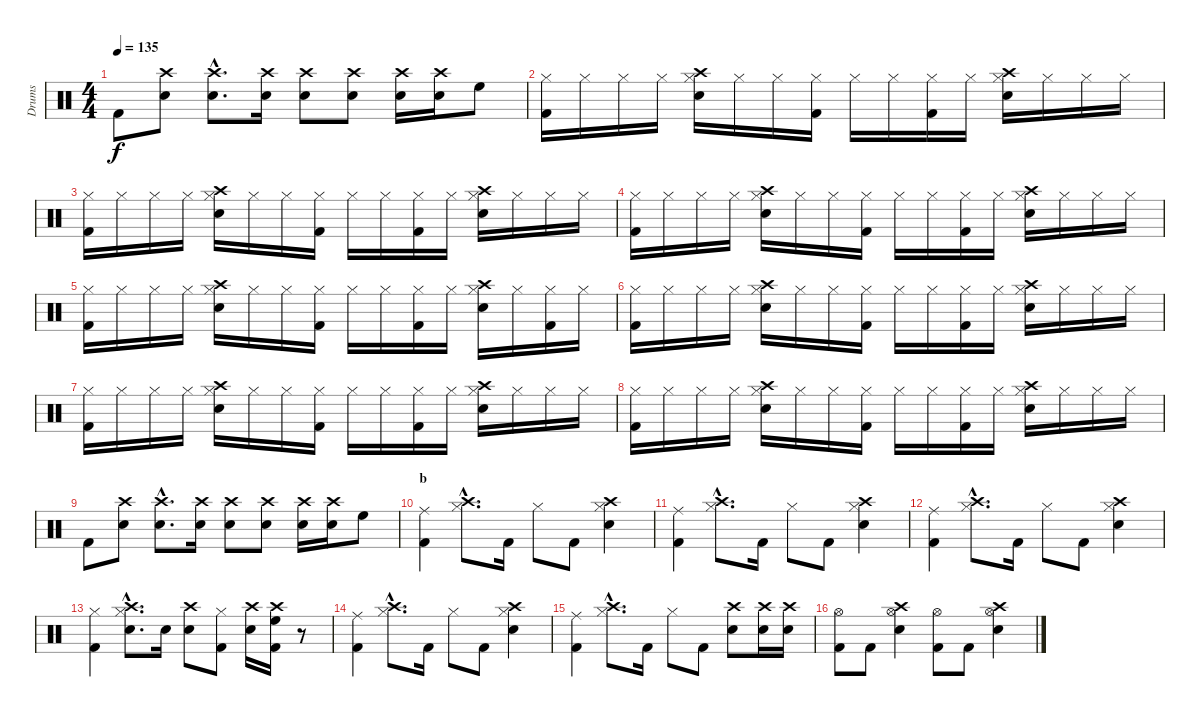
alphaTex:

\track ("Drums" "Drums") {instrument percussion}
\staff {score}
\articulation defaults
\ts (4 4)
\tempo 135
\clef neutral
\ks c "Kick (hit) 2".8{dy f}
("Crash high (hit)" "Snare (hit) 2").8 ("Crash high (hit)"{hac} "Snare (hit) 2"{hac}).8{d} ("Crash high (hit)" "Snare (hit) 2").16 ("Crash high (hit)" "Snare (hit) 2").8 ("Crash high (hit)" "Snare (hit) 2").8 ("Crash high (hit)" "Snare (hit) 2").16 ("Crash high (hit)" "Snare (hit) 2").16 "High Floor Tom (hit)".8 |
("Hi-Hat (closed)" "Kick (hit) 2").16 "Hi-Hat (closed)".16 "Hi-Hat (closed)".16 "Hi-Hat (closed)".16 ("Crash high (hit)" "Hi-Hat (closed)" "Snare (hit) 2").16 "Hi-Hat (closed)".16 "Hi-Hat (closed)".16 ("Hi-Hat (closed)" "Kick (hit) 2").16 "Hi-Hat (closed)".16 "Hi-Hat (closed)".16 ("Hi-Hat (closed)" "Kick (hit) 2").16 "Hi-Hat (closed)".16 ("Crash high (hit)" "Hi-Hat (closed)" "Snare (hit) 2").16 "Hi-Hat (closed)".16 "Hi-Hat (closed)".16 "Hi-Hat (closed)".16 |
("Hi-Hat (closed)" "Kick (hit) 2").16 "Hi-Hat (closed)".16 "Hi-Hat (closed)".16 "Hi-Hat (closed)".16 ("Crash high (hit)" "Hi-Hat (closed)" "Snare (hit) 2").16 "Hi-Hat (closed)".16 "Hi-Hat (closed)".16 ("Hi-Hat (closed)" "Kick (hit) 2").16 "Hi-Hat (closed)".16 "Hi-Hat (closed)".16 ("Hi-Hat (closed)" "Kick (hit) 2").16 "Hi-Hat (closed)".16 ("Crash high (hit)" "Hi-Hat (closed)" "Snare (hit) 2").16 "Hi-Hat (closed)".16 "Hi-Hat (closed)".16 "Hi-Hat (closed)".16 |
("Hi-Hat (closed)" "Kick (hit) 2").16 "Hi-Hat (closed)".16 "Hi-Hat (closed)".16 "Hi-Hat (closed)".16 ("Crash high (hit)" "Hi-Hat (closed)" "Snare (hit) 2").16 "Hi-Hat (closed)".16 "Hi-Hat (closed)".16 ("Hi-Hat (closed)" "Kick (hit) 2").16 "Hi-Hat (closed)".16 "Hi-Hat (closed)".16 ("Hi-Hat (closed)" "Kick (hit) 2").16 "Hi-Hat (closed)".16 ("Crash high (hit)" "Hi-Hat (closed)" "Snare (hit) 2").16 "Hi-Hat (closed)".16 "Hi-Hat (closed)".16 "Hi-Hat (closed)".16 |
("Hi-Hat (closed)" "Kick (hit) 2").16 "Hi-Hat (closed)".16 "Hi-Hat (closed)".16 "Hi-Hat (closed)".16 ("Crash high (hit)" "Hi-Hat (closed)" "Snare (hit) 2").16 "Hi-Hat (closed)".16 "Hi-Hat (closed)".16 ("Hi-Hat (closed)" "Kick (hit) 2").16 "Hi-Hat (closed)".16 "Hi-Hat (closed)".16 ("Hi-Hat (closed)" "Kick (hit) 2").16 "Hi-Hat (closed)".16 ("Crash high (hit)" "Hi-Hat (closed)" "Snare (hit) 2").16 "Hi-Hat (closed)".16 ("Hi-Hat (closed)" "Kick (hit) 2").16 "Hi-Hat (closed)".16 |
("Hi-Hat (closed)" "Kick (hit) 2").16 "Hi-Hat (closed)".16 "Hi-Hat (closed)".16 "Hi-Hat (closed)".16 ("Crash high (hit)" "Hi-Hat (closed)" "Snare (hit) 2").16 "Hi-Hat (closed)".16 "Hi-Hat (closed)".16 ("Hi-Hat (closed)" "Kick (hit) 2").16 "Hi-Hat (closed)".16 "Hi-Hat (closed)".16 ("Hi-Hat (closed)" "Kick (hit) 2").16 "Hi-Hat (closed)".16 ("Crash high (hit)" "Hi-Hat (closed)" "Snare (hit) 2").16 "Hi-Hat (closed)".16 "Hi-Hat (closed)".16 "Hi-Hat (closed)".16 |
("Hi-Hat (closed)" "Kick (hit) 2").16 "Hi-Hat (closed)".16 "Hi-Hat (closed)".16 "Hi-Hat (closed)".16 ("Crash high (hit)" "Hi-Hat (closed)" "Snare (hit) 2").16 "Hi-Hat (closed)".16 "Hi-Hat (closed)".16 ("Hi-Hat (closed)" "Kick (hit) 2").16 "Hi-Hat (closed)".16 "Hi-Hat (closed)".16 ("Hi-Hat (closed)" "Kick (hit) 2").16 "Hi-Hat (closed)".16 ("Crash high (hit)" "Hi-Hat (closed)" "Snare (hit) 2").16 "Hi-Hat (closed)".16 "Hi-Hat (closed)".16 "Hi-Hat (closed)".16 |
("Hi-Hat (closed)" "Kick (hit) 2").16 "Hi-Hat (closed)".16 "Hi-Hat (closed)".16 "Hi-Hat (closed)".16 ("Crash high (hit)" "Hi-Hat (closed)" "Snare (hit) 2").16 "Hi-Hat (closed)".16 "Hi-Hat (closed)".16 ("Hi-Hat (closed)" "Kick (hit) 2").16 "Hi-Hat (closed)".16 "Hi-Hat (closed)".16 ("Hi-Hat (closed)" "Kick (hit) 2").16 "Hi-Hat (closed)".16 ("Crash high (hit)" "Hi-Hat (closed)" "Snare (hit) 2").16 "Hi-Hat (closed)".16 "Hi-Hat (closed)".16 "Hi-Hat (closed)".16 |
"Kick (hit) 2".8 ("Crash high (hit)" "Snare (hit) 2").8 ("Crash high (hit)"{hac} "Snare (hit) 2"{hac}).8{d} ("Crash high (hit)" "Snare (hit) 2").16 ("Crash high (hit)" "Snare (hit) 2").8 ("Crash high (hit)" "Snare (hit) 2").8 ("Crash high (hit)" "Snare (hit) 2").16 ("Crash high (hit)" "Snare (hit) 2").16 "High Floor Tom (hit)".8 |
\section ("" "b")
("Ride (middle)" "Kick (hit) 2").4 ("Crash high (hit)"{hac} "Hi-Hat (closed)"{hac}).8{d} "Kick (hit) 2".16 "Hi-Hat (closed)".8 "Kick (hit) 2".8 ("Crash high (hit)" "Hi-Hat (closed)" "Snare (hit) 2").4 |
("Ride (middle)" "Kick (hit) 2").4 ("Crash high (hit)"{hac} "Hi-Hat (closed)"{hac}).8{d} "Kick (hit) 2".16 "Hi-Hat (closed)".8 "Kick (hit) 2".8 ("Crash high (hit)" "Hi-Hat (closed)" "Snare (hit) 2").4 |
("Ride (middle)" "Kick (hit) 2").4 ("Crash high (hit)"{hac} "Hi-Hat (closed)"{hac}).8{d} "Kick (hit) 2".16 "Hi-Hat (closed)".8 "Kick (hit) 2".8 ("Crash high (hit)" "Hi-Hat (closed)" "Snare (hit) 2").4 |
("Hi-Hat (closed)" "Kick (hit) 2").4 ("Crash high (hit)"{hac} "Hi-Hat (closed)"{hac} "Snare (hit) 2"{hac}).8{d} "Snare (hit) 2".16 ("Crash high (hit)" "Snare (hit) 2").8 ("Hi-Hat (closed)" "Kick (hit) 2").8 ("Crash high (hit)" "Snare (hit) 2").16 ("Crash high (hit)" "High Floor Tom (hit)" "Kick (hit) 2").16 r.8 |
("Ride (middle)" "Kick (hit) 2").4 ("Crash high (hit)"{hac} "Hi-Hat (closed)"{hac}).8{d} "Kick (hit) 2".16 "Hi-Hat (closed)".8 "Kick (hit) 2".8 ("Crash high (hit)" "Hi-Hat (closed)" "Snare (hit) 2").4 |
("Ride (middle)" "Kick (hit) 2").4 ("Crash high (hit)"{hac} "Hi-Hat (closed)"{hac}).8{d} "Kick (hit) 2".16 "Hi-Hat (closed)".8 "Kick (hit) 2".8 ("Crash high (hit)" "Snare (hit) 2").8 ("Crash high (hit)" "Snare (hit) 2").16 ("Crash high (hit)" "Snare (hit) 2").16 |
("Hi-Hat (open)" "Kick (hit) 2").8 "Kick (hit) 2".8 ("Crash high (hit)" "Hi-Hat (open)" "Snare (hit) 2").4 ("Hi-Hat (open)" "Kick (hit) 2").8 "Kick (hit) 2".8 ("Crash high (hit)" "Hi-Hat (open)" "Snare (hit) 2").4
